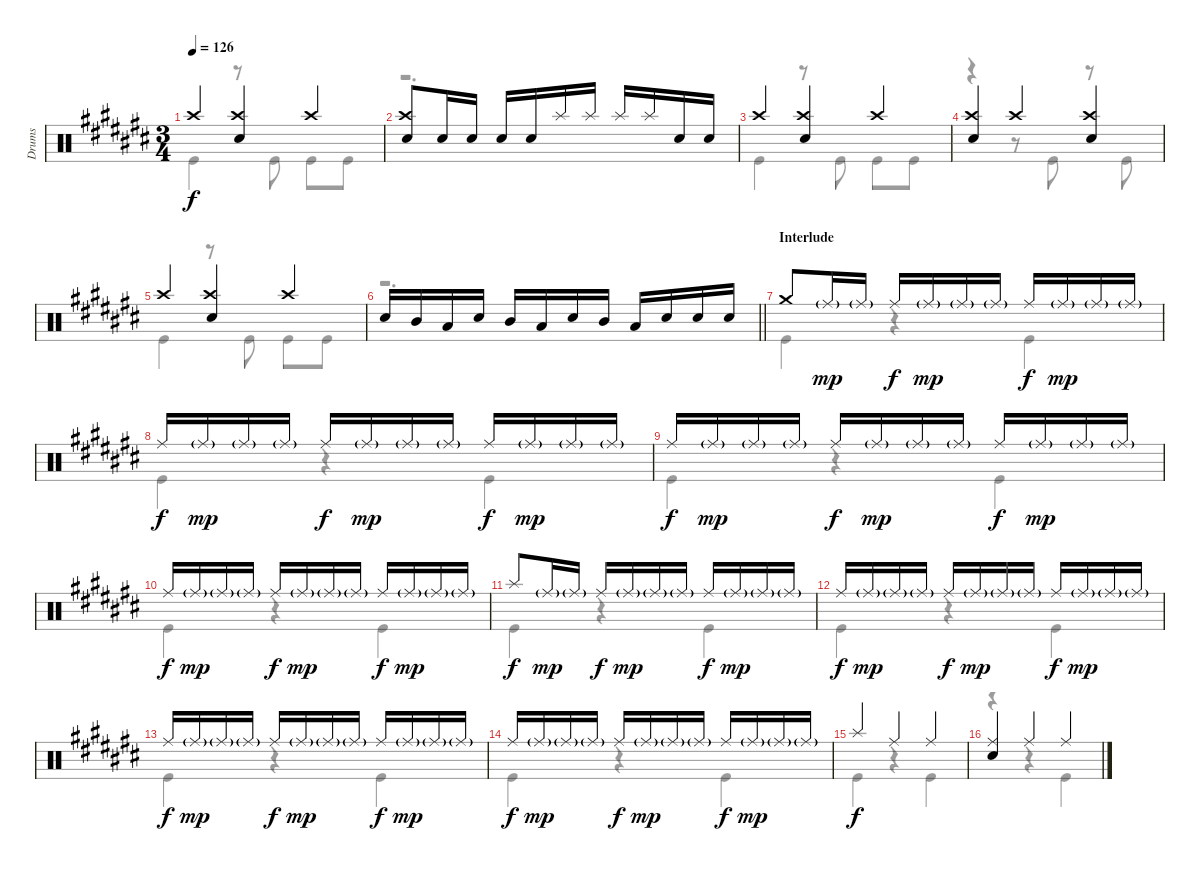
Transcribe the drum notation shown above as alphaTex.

\track ("Drums" "Drums") {instrument percussion}
\staff {score}
\articulation defaults
\voice
\ts (3 4)
\tempo 126
\clef neutral
\ks c# "Crash high (hit)".4{dy f}
("Crash high (hit)" "Electric Snare (hit)").4 "Crash high (hit)".4 |
("Crash high (hit)" "Electric Snare (hit)").8 "Electric Snare (hit)".16 "Electric Snare (hit)".16 "Electric Snare (hit)".16 "Electric Snare (hit)".16 "Splash (hit)".16 "Splash (hit)".16 "Splash (hit)".16 "Splash (hit)".16 "Electric Snare (hit)".16 "Electric Snare (hit)".16 |
"Crash high (hit)".4 ("Crash high (hit)" "Electric Snare (hit)").4 "Crash high (hit)".4 |
("Crash high (hit)" "Electric Snare (hit)").4 "Crash high (hit)".4 ("Crash high (hit)" "Electric Snare (hit)").4 |
"Crash high (hit)".4 ("Crash high (hit)" "Electric Snare (hit)").4 "Crash high (hit)".4 |
\barLineRight lightlight "Electric Snare (hit)".16 "Mid Tom (hit)".16 "Low Tom (hit)".16 "Electric Snare (hit)".16 "Mid Tom (hit)".16 "Low Tom (hit)".16 "Electric Snare (hit)".16 "Mid Tom (hit)".16 "Low Tom (hit)".16 "Electric Snare (hit)".16 "Electric Snare (hit)".16 "Electric Snare (hit)".16
|
\section ("" "Interlude")
"Crash medium (hit)".8 "Ride (middle)"{g}.16{dy mp} "Ride (middle)"{g}.16 "Ride (middle)".16{dy f} "Ride (middle)"{g}.16{dy mp} "Ride (middle)"{g}.16 "Ride (middle)"{g}.16 "Ride (middle)".16{dy f} "Ride (middle)"{g}.16{dy mp} "Ride (middle)"{g}.16 "Ride (middle)"{g}.16 |
"Ride (middle)".16{dy f} "Ride (middle)"{g}.16{dy mp} "Ride (middle)"{g}.16 "Ride (middle)"{g}.16 "Ride (middle)".16{dy f} "Ride (middle)"{g}.16{dy mp} "Ride (middle)"{g}.16 "Ride (middle)"{g}.16 "Ride (middle)".16{dy f} "Ride (middle)"{g}.16{dy mp} "Ride (middle)"{g}.16 "Ride (middle)"{g}.16 |
"Ride (middle)".16{dy f} "Ride (middle)"{g}.16{dy mp} "Ride (middle)"{g}.16 "Ride (middle)"{g}.16 "Ride (middle)".16{dy f} "Ride (middle)"{g}.16{dy mp} "Ride (middle)"{g}.16 "Ride (middle)"{g}.16 "Ride (middle)".16{dy f} "Ride (middle)"{g}.16{dy mp} "Ride (middle)"{g}.16 "Ride (middle)"{g}.16 |
"Ride (middle)".16{dy f} "Ride (middle)"{g}.16{dy mp} "Ride (middle)"{g}.16 "Ride (middle)"{g}.16 "Ride (middle)".16{dy f} "Ride (middle)"{g}.16{dy mp} "Ride (middle)"{g}.16 "Ride (middle)"{g}.16 "Ride (middle)".16{dy f} "Ride (middle)"{g}.16{dy mp} "Ride (middle)"{g}.16 "Ride (middle)"{g}.16 |
"Splash (hit)".8{dy f} "Ride (middle)"{g}.16{dy mp} "Ride (middle)"{g}.16 "Ride (middle)".16{dy f} "Ride (middle)"{g}.16{dy mp} "Ride (middle)"{g}.16 "Ride (middle)"{g}.16 "Ride (middle)".16{dy f} "Ride (middle)"{g}.16{dy mp} "Ride (middle)"{g}.16 "Ride (middle)"{g}.16 |
"Ride (middle)".16{dy f} "Ride (middle)"{g}.16{dy mp} "Ride (middle)"{g}.16 "Ride (middle)"{g}.16 "Ride (middle)".16{dy f} "Ride (middle)"{g}.16{dy mp} "Ride (middle)"{g}.16 "Ride (middle)"{g}.16 "Ride (middle)".16{dy f} "Ride (middle)"{g}.16{dy mp} "Ride (middle)"{g}.16 "Ride (middle)"{g}.16 |
"Ride (middle)".16{dy f} "Ride (middle)"{g}.16{dy mp} "Ride (middle)"{g}.16 "Ride (middle)"{g}.16 "Ride (middle)".16{dy f} "Ride (middle)"{g}.16{dy mp} "Ride (middle)"{g}.16 "Ride (middle)"{g}.16 "Ride (middle)".16{dy f} "Ride (middle)"{g}.16{dy mp} "Ride (middle)"{g}.16 "Ride (middle)"{g}.16 |
"Ride (middle)".16{dy f} "Ride (middle)"{g}.16{dy mp} "Ride (middle)"{g}.16 "Ride (middle)"{g}.16 "Ride (middle)".16{dy f} "Ride (middle)"{g}.16{dy mp} "Ride (middle)"{g}.16 "Ride (middle)"{g}.16 "Ride (middle)".16{dy f} "Ride (middle)"{g}.16{dy mp} "Ride (middle)"{g}.16 "Ride (middle)"{g}.16 |
"Splash (hit)".4{dy f} "Ride (middle)".4 "Ride (middle)".4 |
("Ride (middle)" "Electric Snare (hit)").4 "Ride (middle)".4 "Ride (middle)".4
\voice
\clef neutral
\ottava regular
\simile none
\ks c# "Kick (hit)".4{dy f}
r.8 "Kick (hit)".8{beam split} "Kick (hit)".8 "Kick (hit)".8 |
r.2{d} |
"Kick (hit)".4 r.8 "Kick (hit)".8{beam split} "Kick (hit)".8 "Kick (hit)".8 |
r.4 r.8 "Kick (hit)".8{beam split} r.8 "Kick (hit)".8 |
"Kick (hit)".4 r.8 "Kick (hit)".8{beam split} "Kick (hit)".8 "Kick (hit)".8 |
\barLineRight lightlight
r.2{d} |
"Kick (hit)".4 r.4 "Kick (hit)".4 |
"Kick (hit)".4 r.4 "Kick (hit)".4 |
"Kick (hit)".4 r.4 "Kick (hit)".4 |
"Kick (hit)".4 r.4 "Kick (hit)".4 |
"Kick (hit)".4 r.4 "Kick (hit)".4 |
"Kick (hit)".4 r.4 "Kick (hit)".4 |
"Kick (hit)".4 r.4 "Kick (hit)".4 |
"Kick (hit)".4 r.4 "Kick (hit)".4 |
"Kick (hit)".4 r.4 "Kick (hit)".4 |
r.4 r.4 "Kick (hit)".4
